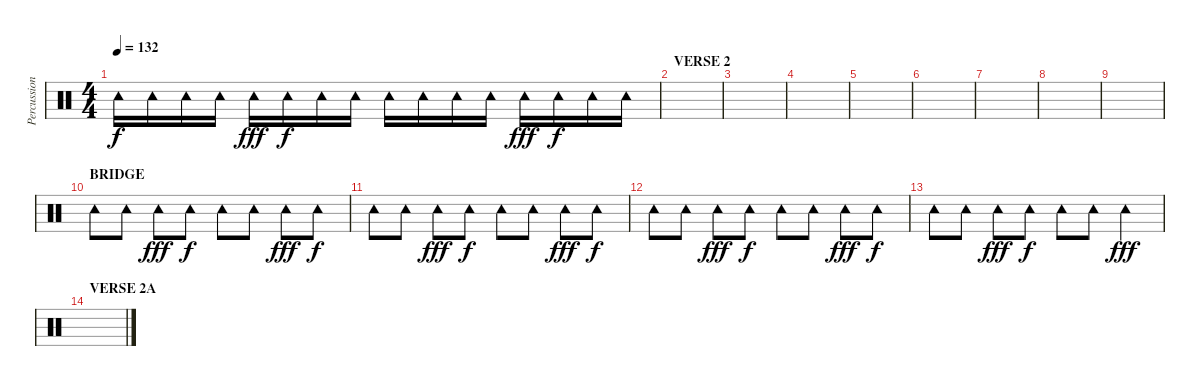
\track ("Percussion" "Percussion") {instrument percussion}
\staff {score}
\articulation defaults
\ts (4 4)
\tempo 132
\clef neutral
\ks c "Tambourine (hit)".16{dy f} "Tambourine (hit)".16 "Tambourine (hit)".16 "Tambourine (hit)".16 "Tambourine (hit)".16{dy fff} "Tambourine (hit)".16{dy f} "Tambourine (hit)".16 "Tambourine (hit)".16 "Tambourine (hit)".16 "Tambourine (hit)".16 "Tambourine (hit)".16 "Tambourine (hit)".16 "Tambourine (hit)".16{dy fff} "Tambourine (hit)".16{dy f} "Tambourine (hit)".16 "Tambourine (hit)".16
|
\section ("" "VERSE 2")
|
|
|
|
|
|
|
|
\section ("" "BRIDGE")
"Tambourine (hit)".8 "Tambourine (hit)".8 "Tambourine (hit)".8{dy fff} "Tambourine (hit)".8{dy f} "Tambourine (hit)".8 "Tambourine (hit)".8 "Tambourine (hit)".8{dy fff} "Tambourine (hit)".8{dy f} |
"Tambourine (hit)".8 "Tambourine (hit)".8 "Tambourine (hit)".8{dy fff} "Tambourine (hit)".8{dy f} "Tambourine (hit)".8 "Tambourine (hit)".8 "Tambourine (hit)".8{dy fff} "Tambourine (hit)".8{dy f} |
"Tambourine (hit)".8 "Tambourine (hit)".8 "Tambourine (hit)".8{dy fff} "Tambourine (hit)".8{dy f} "Tambourine (hit)".8 "Tambourine (hit)".8 "Tambourine (hit)".8{dy fff} "Tambourine (hit)".8{dy f} |
"Tambourine (hit)".8 "Tambourine (hit)".8 "Tambourine (hit)".8{dy fff} "Tambourine (hit)".8{dy f} "Tambourine (hit)".8 "Tambourine (hit)".8 "Tambourine (hit)".4{dy fff} |
\section ("" "VERSE 2A")
